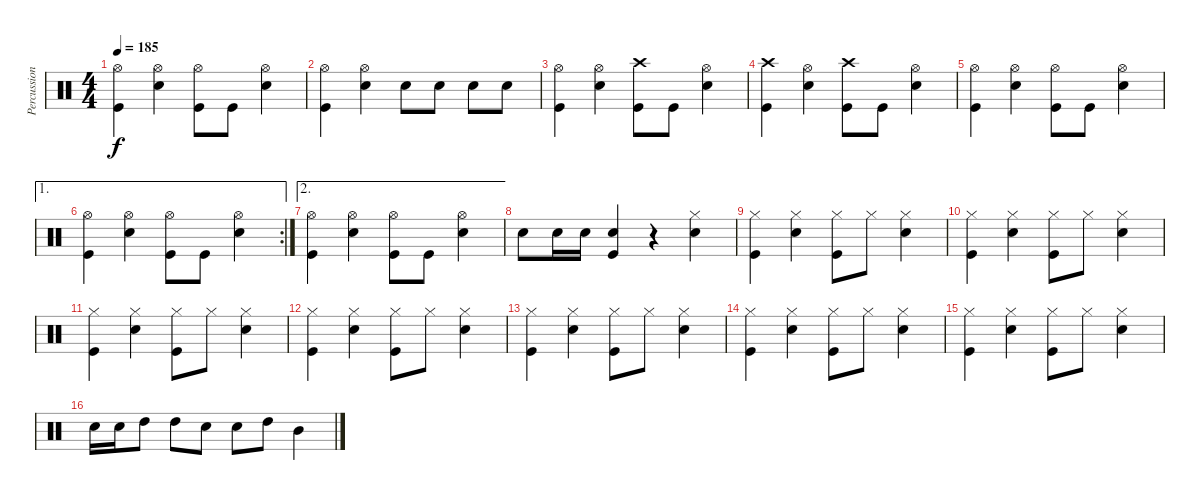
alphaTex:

\track ("Percussion" "Percussion") {instrument percussion}
\staff {score}
\articulation defaults
\ts (4 4)
\tempo 185
\clef neutral
\ks c
("Hi-Hat (open)" "Kick (hit)").4{dy f} ("Hi-Hat (open)" "Snare (hit) 2").4 ("Hi-Hat (open)" "Kick (hit)").8 "Kick (hit)".8 ("Hi-Hat (open)" "Snare (hit) 2").4 |
("Hi-Hat (open)" "Kick (hit)").4 ("Hi-Hat (open)" "Snare (hit) 2").4 "Snare (hit) 2".8 "Snare (hit) 2".8 "Snare (hit) 2".8 "Snare (hit) 2".8 |
("Hi-Hat (open)" "Kick (hit)").4 ("Hi-Hat (open)" "Snare (hit) 2").4 ("Crash high (hit)" "Kick (hit)").8 "Kick (hit)".8 ("Hi-Hat (open)" "Snare (hit) 2").4 |
("Crash high (hit)" "Kick (hit)").4 ("Hi-Hat (open)" "Snare (hit) 2").4 ("Crash high (hit)" "Kick (hit)").8 "Kick (hit)".8 ("Hi-Hat (open)" "Snare (hit) 2").4 |
("Hi-Hat (open)" "Kick (hit)").4 ("Hi-Hat (open)" "Snare (hit) 2").4 ("Hi-Hat (open)" "Kick (hit)").8 "Kick (hit)".8 ("Hi-Hat (open)" "Snare (hit) 2").4 |
\ae 1
\rc 2
("Hi-Hat (open)" "Kick (hit)").4 ("Hi-Hat (open)" "Snare (hit) 2").4 ("Hi-Hat (open)" "Kick (hit)").8 "Kick (hit)".8 ("Hi-Hat (open)" "Snare (hit) 2").4 |
\ae 2
("Hi-Hat (open)" "Kick (hit)").4 ("Hi-Hat (open)" "Snare (hit) 2").4 ("Hi-Hat (open)" "Kick (hit)").8 "Kick (hit)".8 ("Hi-Hat (open)" "Snare (hit) 2").4 |
"Snare (hit) 2".8 "Snare (hit) 2".16 "Snare (hit) 2".16 ("Snare (hit) 2" "Kick (hit)").4 r.4 ("Hi-Hat (closed)" "Snare (hit) 2").4 |
("Hi-Hat (closed)" "Kick (hit)").4 ("Hi-Hat (closed)" "Snare (hit) 2").4 ("Hi-Hat (closed)" "Kick (hit)").8 "Hi-Hat (closed)".8 ("Hi-Hat (closed)" "Snare (hit) 2").4 |
("Hi-Hat (closed)" "Kick (hit)").4 ("Hi-Hat (closed)" "Snare (hit) 2").4 ("Hi-Hat (closed)" "Kick (hit)").8 "Hi-Hat (closed)".8 ("Hi-Hat (closed)" "Snare (hit) 2").4 |
("Hi-Hat (closed)" "Kick (hit)").4 ("Hi-Hat (closed)" "Snare (hit) 2").4 ("Hi-Hat (closed)" "Kick (hit)").8 "Hi-Hat (closed)".8 ("Hi-Hat (closed)" "Snare (hit) 2").4 |
("Hi-Hat (closed)" "Kick (hit)").4 ("Hi-Hat (closed)" "Snare (hit) 2").4 ("Hi-Hat (closed)" "Kick (hit)").8 "Hi-Hat (closed)".8 ("Hi-Hat (closed)" "Snare (hit) 2").4 |
("Hi-Hat (closed)" "Kick (hit)").4 ("Hi-Hat (closed)" "Snare (hit) 2").4 ("Hi-Hat (closed)" "Kick (hit)").8 "Hi-Hat (closed)".8 ("Hi-Hat (closed)" "Snare (hit) 2").4 |
("Hi-Hat (closed)" "Kick (hit)").4 ("Hi-Hat (closed)" "Snare (hit) 2").4 ("Hi-Hat (closed)" "Kick (hit)").8 "Hi-Hat (closed)".8 ("Hi-Hat (closed)" "Snare (hit) 2").4 |
("Hi-Hat (closed)" "Kick (hit)").4 ("Hi-Hat (closed)" "Snare (hit) 2").4 ("Hi-Hat (closed)" "Kick (hit)").8 "Hi-Hat (closed)".8 ("Hi-Hat (closed)" "Snare (hit) 2").4 |
"Snare (hit) 2".16 "Snare (hit) 2".16 "High Tom (hit)".8 "High Tom (hit)".8 "Snare (hit) 2".8 "Snare (hit) 2".8 "High Tom (hit)".8 "Mid Tom (hit)".4
